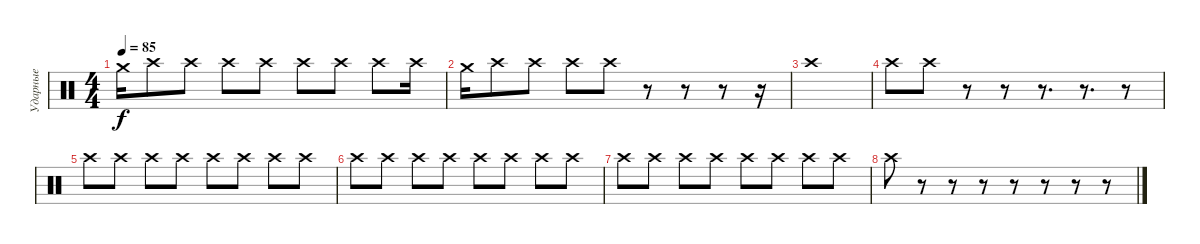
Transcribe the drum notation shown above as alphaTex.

\track ("Ударные" "Ударные") {instrument percussion}
\staff {score}
\articulation defaults
\ts (4 4)
\tempo 85
\clef neutral
\ks c "Crash medium (hit)".16{dy f} "Crash high (hit)".8 "Crash high (hit)".8 "Crash high (hit)".8 "Crash high (hit)".8 "Crash high (hit)".8 "Crash high (hit)".8 "Crash high (hit)".8 "Crash high (hit)".16
|
"Crash medium (hit)".16 "Crash high (hit)".8 "Crash high (hit)".8 "Crash high (hit)".8 "Crash high (hit)".8 r.8 r.8 r.8 r.16 |
"Crash high (hit)".1 |
"Crash high (hit)".8 "Crash high (hit)".8 r.8 r.8 r.8{d} r.8{d} r.8 |
"Crash high (hit)".8 "Crash high (hit)".8 "Crash high (hit)".8 "Crash high (hit)".8 "Crash high (hit)".8 "Crash high (hit)".8 "Crash high (hit)".8 "Crash high (hit)".8 |
"Crash high (hit)".8 "Crash high (hit)".8 "Crash high (hit)".8 "Crash high (hit)".8 "Crash high (hit)".8 "Crash high (hit)".8 "Crash high (hit)".8 "Crash high (hit)".8 |
"Crash high (hit)".8 "Crash high (hit)".8 "Crash high (hit)".8 "Crash high (hit)".8 "Crash high (hit)".8 "Crash high (hit)".8 "Crash high (hit)".8 "Crash high (hit)".8 |
"Crash high (hit)".8 r.8 r.8 r.8 r.8 r.8 r.8 r.8
